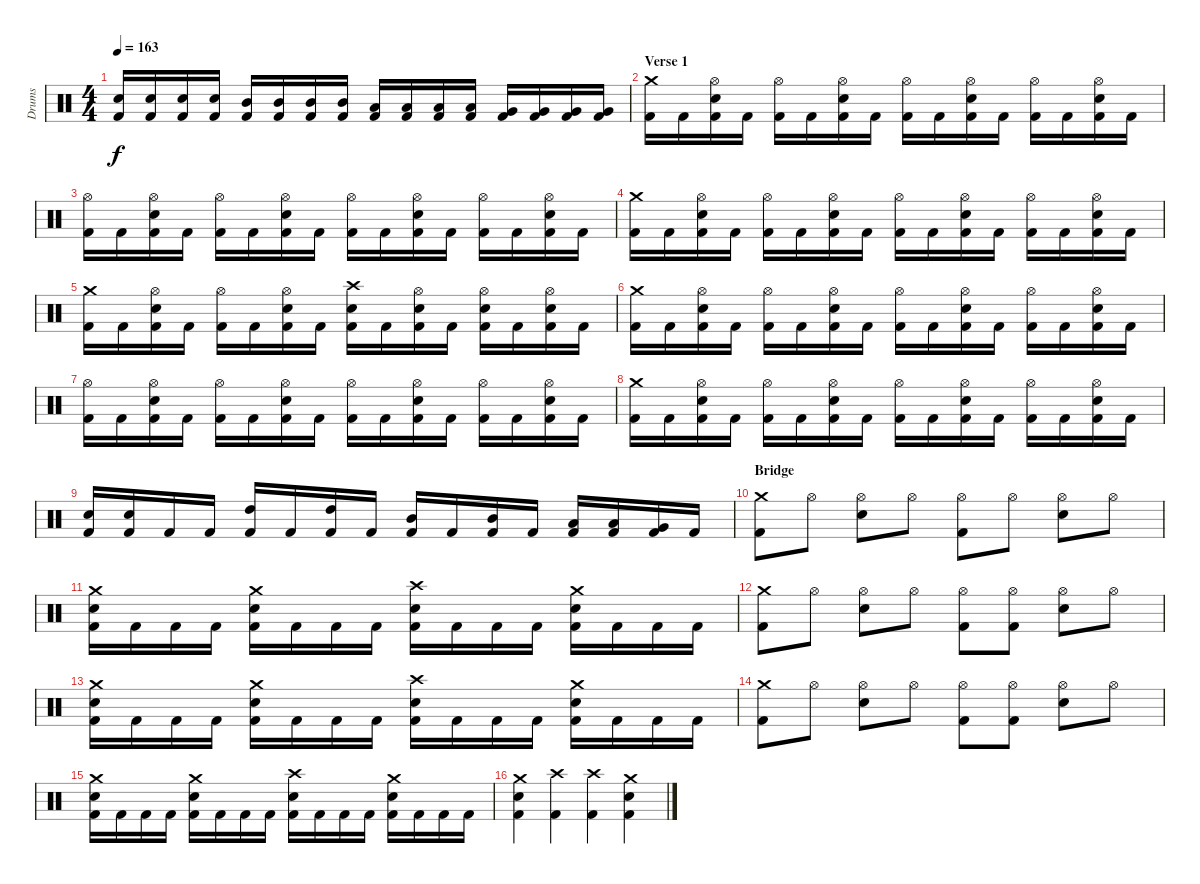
\track ("Drums" "Drums") {instrument percussion}
\staff {score}
\articulation defaults
\ts (4 4)
\tempo 163
\clef neutral
\ks c
("Snare (hit) 2" "Kick (hit) 2").16{dy f} ("Snare (hit) 2" "Kick (hit) 2").16 ("Snare (hit) 2" "Kick (hit) 2").16 ("Snare (hit) 2" "Kick (hit) 2").16 ("Mid Tom (hit)" "Kick (hit) 2").16 ("Mid Tom (hit)" "Kick (hit) 2").16 ("Mid Tom (hit)" "Kick (hit) 2").16 ("Mid Tom (hit)" "Kick (hit) 2").16 ("Low Tom (hit)" "Kick (hit) 2").16 ("Low Tom (hit)" "Kick (hit) 2").16 ("Low Tom (hit)" "Kick (hit) 2").16 ("Low Tom (hit)" "Kick (hit) 2").16 ("Very Low Tom (hit)" "Kick (hit) 2").16 ("Very Low Tom (hit)" "Kick (hit) 2").16 ("Very Low Tom (hit)" "Kick (hit) 2").16 ("Very Low Tom (hit)" "Kick (hit) 2").16 |
\section ("" "Verse 1")
("Crash medium (hit)" "Kick (hit) 2").16 "Kick (hit) 2".16 ("Hi-Hat (open)" "Snare (hit) 2" "Kick (hit) 2").16 "Kick (hit) 2".16 ("Hi-Hat (open)" "Kick (hit) 2").16 "Kick (hit) 2".16 ("Hi-Hat (open)" "Snare (hit) 2" "Kick (hit) 2").16 "Kick (hit) 2".16 ("Hi-Hat (open)" "Kick (hit) 2").16 "Kick (hit) 2".16 ("Hi-Hat (open)" "Snare (hit) 2" "Kick (hit) 2").16 "Kick (hit) 2".16 ("Hi-Hat (open)" "Kick (hit) 2").16 "Kick (hit) 2".16 ("Hi-Hat (open)" "Snare (hit) 2" "Kick (hit) 2").16 "Kick (hit) 2".16 |
("Hi-Hat (open)" "Kick (hit) 2").16 "Kick (hit) 2".16 ("Hi-Hat (open)" "Snare (hit) 2" "Kick (hit) 2").16 "Kick (hit) 2".16 ("Hi-Hat (open)" "Kick (hit) 2").16 "Kick (hit) 2".16 ("Hi-Hat (open)" "Snare (hit) 2" "Kick (hit) 2").16 "Kick (hit) 2".16 ("Hi-Hat (open)" "Kick (hit) 2").16 "Kick (hit) 2".16 ("Hi-Hat (open)" "Snare (hit) 2" "Kick (hit) 2").16 "Kick (hit) 2".16 ("Hi-Hat (open)" "Kick (hit) 2").16 "Kick (hit) 2".16 ("Hi-Hat (open)" "Snare (hit) 2" "Kick (hit) 2").16 "Kick (hit) 2".16 |
("Crash medium (hit)" "Kick (hit) 2").16 "Kick (hit) 2".16 ("Hi-Hat (open)" "Snare (hit) 2" "Kick (hit) 2").16 "Kick (hit) 2".16 ("Hi-Hat (open)" "Kick (hit) 2").16 "Kick (hit) 2".16 ("Hi-Hat (open)" "Snare (hit) 2" "Kick (hit) 2").16 "Kick (hit) 2".16 ("Hi-Hat (open)" "Kick (hit) 2").16 "Kick (hit) 2".16 ("Hi-Hat (open)" "Snare (hit) 2" "Kick (hit) 2").16 "Kick (hit) 2".16 ("Hi-Hat (open)" "Kick (hit) 2").16 "Kick (hit) 2".16 ("Hi-Hat (open)" "Snare (hit) 2" "Kick (hit) 2").16 "Kick (hit) 2".16 |
("Crash medium (hit)" "Kick (hit) 2").16 "Kick (hit) 2".16 ("Hi-Hat (open)" "Snare (hit) 2" "Kick (hit) 2").16 "Kick (hit) 2".16 ("Hi-Hat (open)" "Kick (hit) 2").16 "Kick (hit) 2".16 ("Hi-Hat (open)" "Snare (hit) 2" "Kick (hit) 2").16 "Kick (hit) 2".16 ("Crash high (hit)" "Snare (hit) 2" "Kick (hit) 2").16 "Kick (hit) 2".16 ("Hi-Hat (open)" "Snare (hit) 2" "Kick (hit) 2").16 "Kick (hit) 2".16 ("Hi-Hat (open)" "Snare (hit) 2" "Kick (hit) 2").16 "Kick (hit) 2".16 ("Hi-Hat (open)" "Snare (hit) 2" "Kick (hit) 2").16 "Kick (hit) 2".16 |
("Crash medium (hit)" "Kick (hit) 2").16 "Kick (hit) 2".16 ("Hi-Hat (open)" "Snare (hit) 2" "Kick (hit) 2").16 "Kick (hit) 2".16 ("Hi-Hat (open)" "Kick (hit) 2").16 "Kick (hit) 2".16 ("Hi-Hat (open)" "Snare (hit) 2" "Kick (hit) 2").16 "Kick (hit) 2".16 ("Hi-Hat (open)" "Kick (hit) 2").16 "Kick (hit) 2".16 ("Hi-Hat (open)" "Snare (hit) 2" "Kick (hit) 2").16 "Kick (hit) 2".16 ("Hi-Hat (open)" "Kick (hit) 2").16 "Kick (hit) 2".16 ("Hi-Hat (open)" "Snare (hit) 2" "Kick (hit) 2").16 "Kick (hit) 2".16 |
("Hi-Hat (open)" "Kick (hit) 2").16 "Kick (hit) 2".16 ("Hi-Hat (open)" "Snare (hit) 2" "Kick (hit) 2").16 "Kick (hit) 2".16 ("Hi-Hat (open)" "Kick (hit) 2").16 "Kick (hit) 2".16 ("Hi-Hat (open)" "Snare (hit) 2" "Kick (hit) 2").16 "Kick (hit) 2".16 ("Hi-Hat (open)" "Kick (hit) 2").16 "Kick (hit) 2".16 ("Hi-Hat (open)" "Snare (hit) 2" "Kick (hit) 2").16 "Kick (hit) 2".16 ("Hi-Hat (open)" "Kick (hit) 2").16 "Kick (hit) 2".16 ("Hi-Hat (open)" "Snare (hit) 2" "Kick (hit) 2").16 "Kick (hit) 2".16 |
("Crash medium (hit)" "Kick (hit) 2").16 "Kick (hit) 2".16 ("Hi-Hat (open)" "Snare (hit) 2" "Kick (hit) 2").16 "Kick (hit) 2".16 ("Hi-Hat (open)" "Kick (hit) 2").16 "Kick (hit) 2".16 ("Hi-Hat (open)" "Snare (hit) 2" "Kick (hit) 2").16 "Kick (hit) 2".16 ("Hi-Hat (open)" "Kick (hit) 2").16 "Kick (hit) 2".16 ("Hi-Hat (open)" "Snare (hit) 2" "Kick (hit) 2").16 "Kick (hit) 2".16 ("Hi-Hat (open)" "Kick (hit) 2").16 "Kick (hit) 2".16 ("Hi-Hat (open)" "Snare (hit) 2" "Kick (hit) 2").16 "Kick (hit) 2".16 |
("Snare (hit) 2" "Kick (hit) 2").16 ("Snare (hit) 2" "Kick (hit) 2").16 "Kick (hit) 2".16 "Kick (hit) 2".16 ("High Tom (hit)" "Kick (hit) 2").16 "Kick (hit) 2".16 ("High Tom (hit)" "Kick (hit) 2").16 "Kick (hit) 2".16 ("Mid Tom (hit)" "Kick (hit) 2").16 "Kick (hit) 2".16 ("Mid Tom (hit)" "Kick (hit) 2").16 "Kick (hit) 2".16 ("Low Tom (hit)" "Kick (hit) 2").16 ("Low Tom (hit)" "Kick (hit) 2").16 ("Very Low Tom (hit)" "Kick (hit) 2").16 "Kick (hit) 2".16 |
\section ("" "Bridge")
("Crash medium (hit)" "Kick (hit) 2").8 "Hi-Hat (open)".8 ("Hi-Hat (open)" "Snare (hit) 2").8 "Hi-Hat (open)".8 ("Hi-Hat (open)" "Kick (hit) 2").8 "Hi-Hat (open)".8 ("Hi-Hat (open)" "Snare (hit) 2").8 "Hi-Hat (open)".8 |
("Crash medium (hit)" "Snare (hit) 2" "Kick (hit) 2").16 "Kick (hit) 2".16 "Kick (hit) 2".16 "Kick (hit) 2".16 ("Crash medium (hit)" "Snare (hit) 2" "Kick (hit) 2").16 "Kick (hit) 2".16 "Kick (hit) 2".16 "Kick (hit) 2".16 ("Crash high (hit)" "Snare (hit) 2" "Kick (hit) 2").16 "Kick (hit) 2".16 "Kick (hit) 2".16 "Kick (hit) 2".16 ("Crash medium (hit)" "Snare (hit) 2" "Kick (hit) 2").16 "Kick (hit) 2".16 "Kick (hit) 2".16 "Kick (hit) 2".16 |
("Crash medium (hit)" "Kick (hit) 2").8 "Hi-Hat (open)".8 ("Hi-Hat (open)" "Snare (hit) 2").8 "Hi-Hat (open)".8 ("Hi-Hat (open)" "Kick (hit) 2").8 ("Hi-Hat (open)" "Kick (hit) 2").8 ("Hi-Hat (open)" "Snare (hit) 2").8 "Hi-Hat (open)".8 |
("Crash medium (hit)" "Snare (hit) 2" "Kick (hit) 2").16 "Kick (hit) 2".16 "Kick (hit) 2".16 "Kick (hit) 2".16 ("Crash medium (hit)" "Snare (hit) 2" "Kick (hit) 2").16 "Kick (hit) 2".16 "Kick (hit) 2".16 "Kick (hit) 2".16 ("Crash high (hit)" "Snare (hit) 2" "Kick (hit) 2").16 "Kick (hit) 2".16 "Kick (hit) 2".16 "Kick (hit) 2".16 ("Crash medium (hit)" "Snare (hit) 2" "Kick (hit) 2").16 "Kick (hit) 2".16 "Kick (hit) 2".16 "Kick (hit) 2".16 |
("Crash medium (hit)" "Kick (hit) 2").8 "Hi-Hat (open)".8 ("Hi-Hat (open)" "Snare (hit) 2").8 "Hi-Hat (open)".8 ("Hi-Hat (open)" "Kick (hit) 2").8 ("Hi-Hat (open)" "Kick (hit) 2").8 ("Hi-Hat (open)" "Snare (hit) 2").8 "Hi-Hat (open)".8 |
("Crash medium (hit)" "Snare (hit) 2" "Kick (hit) 2").16 "Kick (hit) 2".16 "Kick (hit) 2".16 "Kick (hit) 2".16 ("Crash medium (hit)" "Snare (hit) 2" "Kick (hit) 2").16 "Kick (hit) 2".16 "Kick (hit) 2".16 "Kick (hit) 2".16 ("Crash high (hit)" "Snare (hit) 2" "Kick (hit) 2").16 "Kick (hit) 2".16 "Kick (hit) 2".16 "Kick (hit) 2".16 ("Crash medium (hit)" "Snare (hit) 2" "Kick (hit) 2").16 "Kick (hit) 2".16 "Kick (hit) 2".16 "Kick (hit) 2".16 |
("Crash medium (hit)" "Snare (hit) 2" "Kick (hit) 2").4 ("Crash high (hit)" "Kick (hit) 2").4 ("Crash high (hit)" "Kick (hit) 2").4 ("Crash medium (hit)" "Snare (hit) 2" "Kick (hit) 2").4
